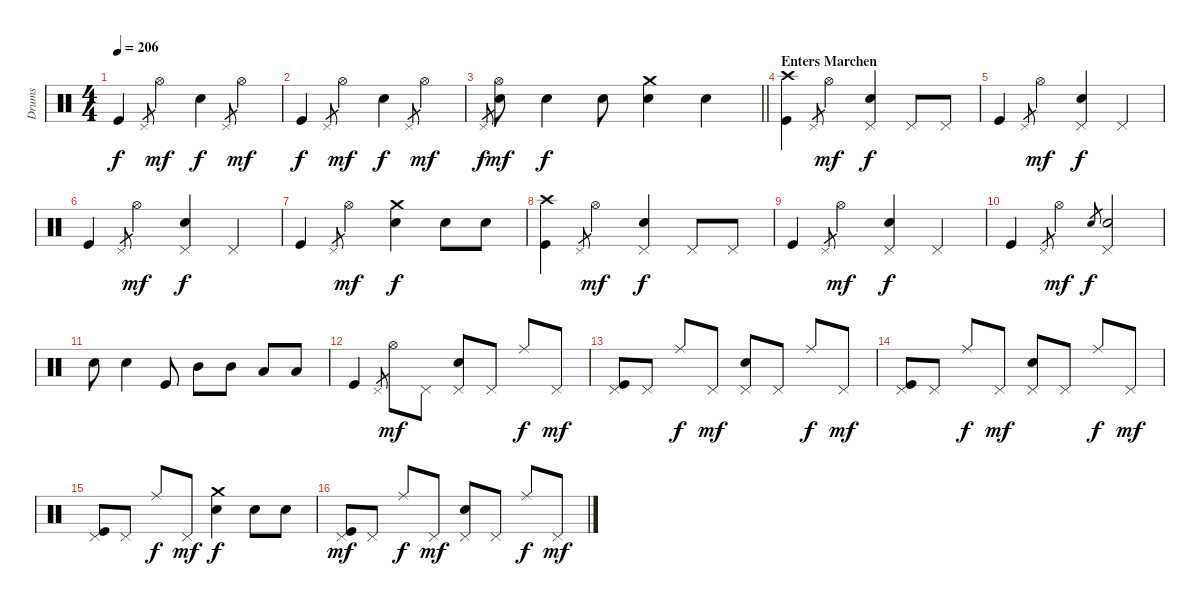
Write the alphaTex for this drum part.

\track ("Drums" "Drums") {instrument percussion}
\staff {score}
\articulation defaults
\ts (4 4)
\tempo 206
\clef neutral
\ks c "Kick (hit)".4{dy f} "Pedal Hi-Hat (hit)".8{gr} "Hi-Hat (open)".4{dy mf} "Electric Snare (hit)".4{dy f} "Pedal Hi-Hat (hit)".8{gr} "Hi-Hat (open)".4{dy mf}
|
"Kick (hit)".4{dy f} "Pedal Hi-Hat (hit)".8{gr} "Hi-Hat (open)".4{dy mf} "Electric Snare (hit)".4{dy f} "Pedal Hi-Hat (hit)".8{gr} "Hi-Hat (open)".4{dy mf} |
\barLineRight lightlight "Pedal Hi-Hat (hit)".8{gr dy f}
("Hi-Hat (open)" "Electric Snare (hit)").8{dy mf} "Electric Snare (hit)".4{dy f} "Electric Snare (hit)".8 ("Crash medium (hit)" "Electric Snare (hit)").4 "Electric Snare (hit)".4 |
\section ("" "Enters Marchen")
("Crash high (hit)" "Kick (hit)").4 "Pedal Hi-Hat (hit)".8{gr} "Hi-Hat (open)".4{dy mf} ("Pedal Hi-Hat (hit)" "Electric Snare (hit)").4{dy f} "Pedal Hi-Hat (hit)".8 "Pedal Hi-Hat (hit)".8 |
"Kick (hit)".4 "Pedal Hi-Hat (hit)".8{gr} "Hi-Hat (open)".4{dy mf} ("Pedal Hi-Hat (hit)" "Electric Snare (hit)").4{dy f} "Pedal Hi-Hat (hit)".4 |
"Kick (hit)".4 "Pedal Hi-Hat (hit)".8{gr} "Hi-Hat (open)".4{dy mf} ("Pedal Hi-Hat (hit)" "Electric Snare (hit)").4{dy f} "Pedal Hi-Hat (hit)".4 |
"Kick (hit)".4 "Pedal Hi-Hat (hit)".8{gr} "Hi-Hat (open)".4{dy mf} ("Crash medium (hit)" "Electric Snare (hit)").4{dy f} "Electric Snare (hit)".8 "Electric Snare (hit)".8 |
("Crash high (hit)" "Kick (hit)").4 "Pedal Hi-Hat (hit)".8{gr} "Hi-Hat (open)".4{dy mf} ("Pedal Hi-Hat (hit)" "Electric Snare (hit)").4{dy f} "Pedal Hi-Hat (hit)".8 "Pedal Hi-Hat (hit)".8 |
"Kick (hit)".4 "Pedal Hi-Hat (hit)".8{gr} "Hi-Hat (open)".4{dy mf} ("Pedal Hi-Hat (hit)" "Electric Snare (hit)").4{dy f} "Pedal Hi-Hat (hit)".4 |
"Kick (hit)".4 "Pedal Hi-Hat (hit)".8{gr} "Hi-Hat (open)".4{dy mf} "Electric Snare (hit)"{h}.8{gr dy f} ("Pedal Hi-Hat (hit)" "Electric Snare (hit)").2 |
"Electric Snare (hit)".8 "Electric Snare (hit)".4 "Kick (hit)".8 "Mid Tom (hit)".8 "Mid Tom (hit)".8 "Low Tom (hit)".8 "Low Tom (hit)".8 |
"Kick (hit)".4 "Pedal Hi-Hat (hit)"{h}.8{gr} "Hi-Hat (open)".8{dy mf} "Pedal Hi-Hat (hit)".8 ("Pedal Hi-Hat (hit)" "Electric Snare (hit)").8 "Pedal Hi-Hat (hit)".8 "Ride (middle)".8{dy f} "Pedal Hi-Hat (hit)".8{dy mf} |
("Pedal Hi-Hat (hit)" "Kick (hit)").8 "Pedal Hi-Hat (hit)".8 "Ride (middle)".8{dy f} "Pedal Hi-Hat (hit)".8{dy mf} ("Pedal Hi-Hat (hit)" "Electric Snare (hit)").8 "Pedal Hi-Hat (hit)".8 "Ride (middle)".8{dy f} "Pedal Hi-Hat (hit)".8{dy mf} |
("Pedal Hi-Hat (hit)" "Kick (hit)").8 "Pedal Hi-Hat (hit)".8 "Ride (middle)".8{dy f} "Pedal Hi-Hat (hit)".8{dy mf} ("Pedal Hi-Hat (hit)" "Electric Snare (hit)").8 "Pedal Hi-Hat (hit)".8 "Ride (middle)".8{dy f} "Pedal Hi-Hat (hit)".8{dy mf} |
("Pedal Hi-Hat (hit)" "Kick (hit)").8 "Pedal Hi-Hat (hit)".8 "Ride (middle)".8{dy f} "Pedal Hi-Hat (hit)".8{dy mf} ("Crash medium (hit)" "Electric Snare (hit)").4{dy f} "Electric Snare (hit)".8 "Electric Snare (hit)".8 |
("Pedal Hi-Hat (hit)" "Kick (hit)").8{dy mf} "Pedal Hi-Hat (hit)".8 "Ride (middle)".8{dy f} "Pedal Hi-Hat (hit)".8{dy mf} ("Pedal Hi-Hat (hit)" "Electric Snare (hit)").8 "Pedal Hi-Hat (hit)".8 "Ride (middle)".8{dy f} "Pedal Hi-Hat (hit)".8{dy mf}
